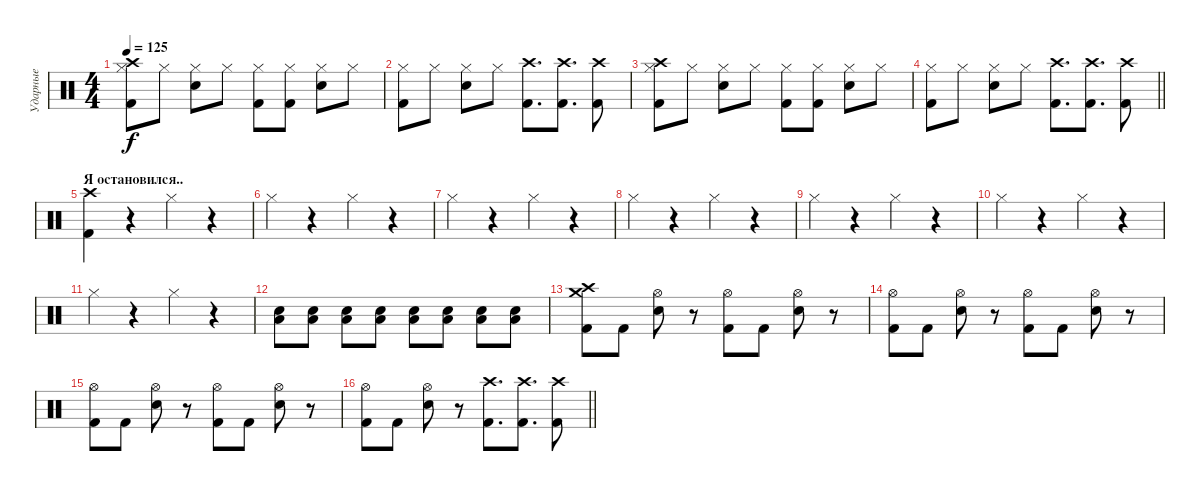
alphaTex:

\track ("Ударные" "Ударные") {instrument percussion}
\staff {score}
\articulation defaults
\ts (4 4)
\tempo 125
\clef neutral
\ks c
("Crash high (hit)" "Kick (hit) 2" "Hi-Hat (closed)").8{dy f} "Hi-Hat (closed)".8 ("Snare (hit) 2" "Hi-Hat (closed)").8 "Hi-Hat (closed)".8 ("Kick (hit) 2" "Hi-Hat (closed)").8 ("Kick (hit) 2" "Hi-Hat (closed)").8 ("Snare (hit) 2" "Hi-Hat (closed)").8 "Hi-Hat (closed)".8 |
("Kick (hit) 2" "Hi-Hat (closed)").8 "Hi-Hat (closed)".8 ("Snare (hit) 2" "Hi-Hat (closed)").8 "Hi-Hat (closed)".8 ("Crash high (hit)" "Kick (hit) 2").8{d} ("Crash high (hit)" "Kick (hit) 2").8{d} ("Crash high (hit)" "Kick (hit) 2").8 |
("Crash high (hit)" "Kick (hit) 2" "Hi-Hat (closed)").8 "Hi-Hat (closed)".8 ("Snare (hit) 2" "Hi-Hat (closed)").8 "Hi-Hat (closed)".8 ("Kick (hit) 2" "Hi-Hat (closed)").8 ("Kick (hit) 2" "Hi-Hat (closed)").8 ("Snare (hit) 2" "Hi-Hat (closed)").8 "Hi-Hat (closed)".8 |
\barLineRight lightlight
("Kick (hit) 2" "Hi-Hat (closed)").8 "Hi-Hat (closed)".8 ("Snare (hit) 2" "Hi-Hat (closed)").8 "Hi-Hat (closed)".8 ("Crash high (hit)" "Kick (hit) 2").8{d} ("Crash high (hit)" "Kick (hit) 2").8{d} ("Crash high (hit)" "Kick (hit) 2").8 |
\section ("" "Я остановился..")
("Kick (hit) 2" "Crash high (hit)").4 r.4 "Hi-Hat (closed)".4 r.4 |
"Hi-Hat (closed)".4 r.4 "Hi-Hat (closed)".4 r.4 |
"Hi-Hat (closed)".4 r.4 "Hi-Hat (closed)".4 r.4 |
"Hi-Hat (closed)".4 r.4 "Hi-Hat (closed)".4 r.4 |
"Hi-Hat (closed)".4 r.4 "Hi-Hat (closed)".4 r.4 |
"Hi-Hat (closed)".4 r.4 "Hi-Hat (closed)".4 r.4 |
"Hi-Hat (closed)".4 r.4 "Hi-Hat (closed)".4 r.4 |
("Low Floor Tom (hit)" "Electric Snare (hit)").8 ("Low Floor Tom (hit)" "Electric Snare (hit)").8 ("Low Floor Tom (hit)" "Electric Snare (hit)").8 ("Low Floor Tom (hit)" "Electric Snare (hit)").8 ("Low Floor Tom (hit)" "Electric Snare (hit)").8 ("Low Floor Tom (hit)" "Electric Snare (hit)").8 ("Low Floor Tom (hit)" "Electric Snare (hit)").8 ("Low Floor Tom (hit)" "Electric Snare (hit)").8 |
("Crash medium (hit)" "Kick (hit) 2" "Crash high (hit)").8 "Kick (hit) 2".8 ("Snare (hit) 2" "Hi-Hat (open)").8 r.8 ("Kick (hit) 2" "Hi-Hat (open)").8 "Kick (hit) 2".8 ("Snare (hit) 2" "Hi-Hat (open)").8 r.8 |
("Kick (hit) 2" "Hi-Hat (open)").8 "Kick (hit) 2".8 ("Snare (hit) 2" "Hi-Hat (open)").8 r.8 ("Kick (hit) 2" "Hi-Hat (open)").8 "Kick (hit) 2".8 ("Snare (hit) 2" "Hi-Hat (open)").8 r.8 |
("Kick (hit) 2" "Hi-Hat (open)").8 "Kick (hit) 2".8 ("Snare (hit) 2" "Hi-Hat (open)").8 r.8 ("Kick (hit) 2" "Hi-Hat (open)").8 "Kick (hit) 2".8 ("Snare (hit) 2" "Hi-Hat (open)").8 r.8 |
\barLineRight lightlight
("Kick (hit) 2" "Hi-Hat (open)").8 "Kick (hit) 2".8 ("Snare (hit) 2" "Hi-Hat (open)").8 r.8 ("Crash high (hit)" "Kick (hit) 2").8{d} ("Crash high (hit)" "Kick (hit) 2").8{d} ("Crash high (hit)" "Kick (hit) 2").8
